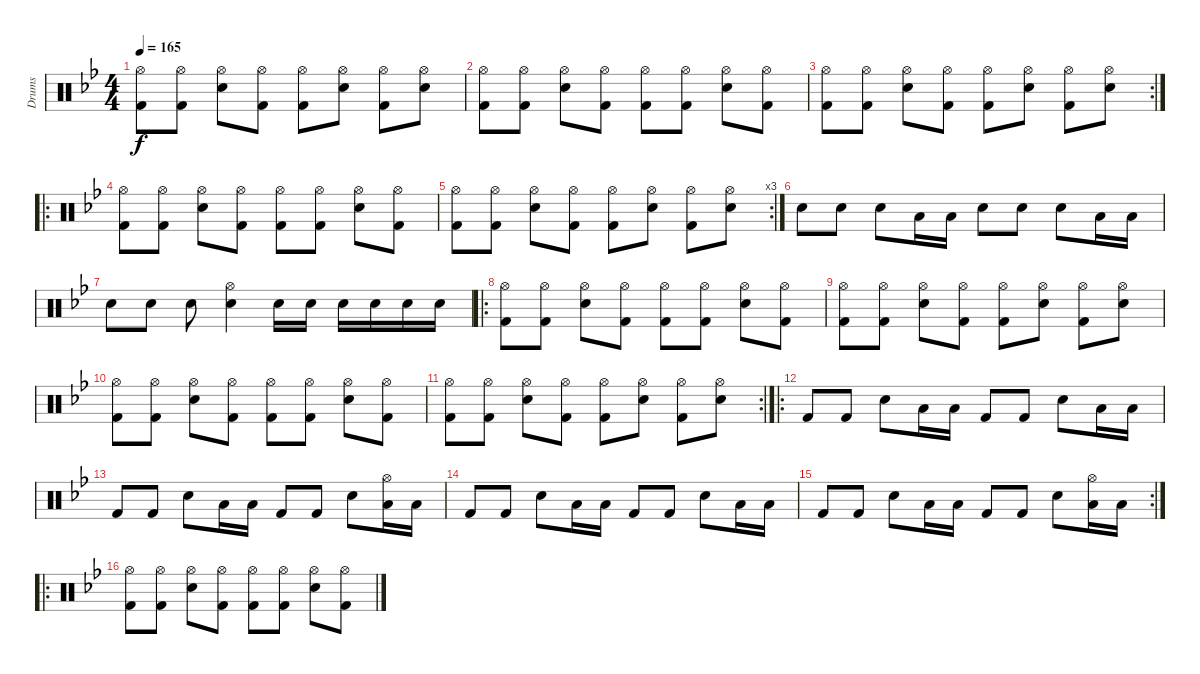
\track ("Drums" "Drums") {instrument percussion}
\staff {score}
\articulation defaults
\ts (4 4)
\tempo 165
\clef neutral
\ks bb
("Kick (hit) 2" "Hi-Hat (open)").8{dy f} ("Kick (hit) 2" "Hi-Hat (open)").8 ("Electric Snare (hit)" "Hi-Hat (open)").8 ("Kick (hit) 2" "Hi-Hat (open)").8 ("Kick (hit) 2" "Hi-Hat (open)").8 ("Electric Snare (hit)" "Hi-Hat (open)").8 ("Kick (hit) 2" "Hi-Hat (open)").8 ("Electric Snare (hit)" "Hi-Hat (open)").8 |
("Kick (hit) 2" "Hi-Hat (open)").8 ("Kick (hit) 2" "Hi-Hat (open)").8 ("Electric Snare (hit)" "Hi-Hat (open)").8 ("Kick (hit) 2" "Hi-Hat (open)").8 ("Kick (hit) 2" "Hi-Hat (open)").8 ("Kick (hit) 2" "Hi-Hat (open)").8 ("Electric Snare (hit)" "Hi-Hat (open)").8 ("Kick (hit) 2" "Hi-Hat (open)").8 |
\rc 2
("Kick (hit) 2" "Hi-Hat (open)").8 ("Kick (hit) 2" "Hi-Hat (open)").8 ("Electric Snare (hit)" "Hi-Hat (open)").8 ("Kick (hit) 2" "Hi-Hat (open)").8 ("Kick (hit) 2" "Hi-Hat (open)").8 ("Electric Snare (hit)" "Hi-Hat (open)").8 ("Kick (hit) 2" "Hi-Hat (open)").8 ("Electric Snare (hit)" "Hi-Hat (open)").8 |
\ro
("Kick (hit) 2" "Hi-Hat (open)").8 ("Kick (hit) 2" "Hi-Hat (open)").8 ("Electric Snare (hit)" "Hi-Hat (open)").8 ("Kick (hit) 2" "Hi-Hat (open)").8 ("Kick (hit) 2" "Hi-Hat (open)").8 ("Kick (hit) 2" "Hi-Hat (open)").8 ("Electric Snare (hit)" "Hi-Hat (open)").8 ("Kick (hit) 2" "Hi-Hat (open)").8 |
\rc 3
("Kick (hit) 2" "Hi-Hat (open)").8 ("Kick (hit) 2" "Hi-Hat (open)").8 ("Electric Snare (hit)" "Hi-Hat (open)").8 ("Kick (hit) 2" "Hi-Hat (open)").8 ("Kick (hit) 2" "Hi-Hat (open)").8 ("Electric Snare (hit)" "Hi-Hat (open)").8 ("Kick (hit) 2" "Hi-Hat (open)").8 ("Electric Snare (hit)" "Hi-Hat (open)").8 |
"Electric Snare (hit)".8 "Electric Snare (hit)".8 "Electric Snare (hit)".8 "Low Floor Tom (hit)".16 "Low Floor Tom (hit)".16 "Electric Snare (hit)".8 "Electric Snare (hit)".8 "Electric Snare (hit)".8 "Low Floor Tom (hit)".16 "Low Floor Tom (hit)".16 |
"Electric Snare (hit)".8 "Electric Snare (hit)".8 "Electric Snare (hit)".8 ("Electric Snare (hit)" "Hi-Hat (open)").4 "Electric Snare (hit)".16 "Electric Snare (hit)".16 "Electric Snare (hit)".16 "Electric Snare (hit)".16 "Electric Snare (hit)".16 "Electric Snare (hit)".16 |
\ro
("Kick (hit) 2" "Hi-Hat (open)").8 ("Kick (hit) 2" "Hi-Hat (open)").8 ("Electric Snare (hit)" "Hi-Hat (open)").8 ("Kick (hit) 2" "Hi-Hat (open)").8 ("Kick (hit) 2" "Hi-Hat (open)").8 ("Kick (hit) 2" "Hi-Hat (open)").8 ("Electric Snare (hit)" "Hi-Hat (open)").8 ("Kick (hit) 2" "Hi-Hat (open)").8 |
("Kick (hit) 2" "Hi-Hat (open)").8 ("Kick (hit) 2" "Hi-Hat (open)").8 ("Electric Snare (hit)" "Hi-Hat (open)").8 ("Kick (hit) 2" "Hi-Hat (open)").8 ("Kick (hit) 2" "Hi-Hat (open)").8 ("Electric Snare (hit)" "Hi-Hat (open)").8 ("Kick (hit) 2" "Hi-Hat (open)").8 ("Electric Snare (hit)" "Hi-Hat (open)").8 |
("Kick (hit) 2" "Hi-Hat (open)").8 ("Kick (hit) 2" "Hi-Hat (open)").8 ("Electric Snare (hit)" "Hi-Hat (open)").8 ("Kick (hit) 2" "Hi-Hat (open)").8 ("Kick (hit) 2" "Hi-Hat (open)").8 ("Kick (hit) 2" "Hi-Hat (open)").8 ("Electric Snare (hit)" "Hi-Hat (open)").8 ("Kick (hit) 2" "Hi-Hat (open)").8 |
\rc 2
("Kick (hit) 2" "Hi-Hat (open)").8 ("Kick (hit) 2" "Hi-Hat (open)").8 ("Electric Snare (hit)" "Hi-Hat (open)").8 ("Kick (hit) 2" "Hi-Hat (open)").8 ("Kick (hit) 2" "Hi-Hat (open)").8 ("Electric Snare (hit)" "Hi-Hat (open)").8 ("Kick (hit) 2" "Hi-Hat (open)").8 ("Electric Snare (hit)" "Hi-Hat (open)").8 |
\ro "Kick (hit) 2".8 "Kick (hit) 2".8 "Electric Snare (hit)".8 "Low Floor Tom (hit)".16 "Low Floor Tom (hit)".16 "Kick (hit) 2".8 "Kick (hit) 2".8 "Electric Snare (hit)".8 "Low Floor Tom (hit)".16 "Low Floor Tom (hit)".16
|
"Kick (hit) 2".8 "Kick (hit) 2".8 "Electric Snare (hit)".8 "Low Floor Tom (hit)".16 "Low Floor Tom (hit)".16 "Kick (hit) 2".8 "Kick (hit) 2".8 "Electric Snare (hit)".8 ("Low Floor Tom (hit)" "Hi-Hat (open)").16 "Low Floor Tom (hit)".16 |
"Kick (hit) 2".8 "Kick (hit) 2".8 "Electric Snare (hit)".8 "Low Floor Tom (hit)".16 "Low Floor Tom (hit)".16 "Kick (hit) 2".8 "Kick (hit) 2".8 "Electric Snare (hit)".8 "Low Floor Tom (hit)".16 "Low Floor Tom (hit)".16 |
\rc 2 "Kick (hit) 2".8 "Kick (hit) 2".8 "Electric Snare (hit)".8 "Low Floor Tom (hit)".16 "Low Floor Tom (hit)".16 "Kick (hit) 2".8 "Kick (hit) 2".8 "Electric Snare (hit)".8
("Low Floor Tom (hit)" "Hi-Hat (open)").16 "Low Floor Tom (hit)".16 |
\ro
("Kick (hit) 2" "Hi-Hat (open)").8 ("Kick (hit) 2" "Hi-Hat (open)").8 ("Electric Snare (hit)" "Hi-Hat (open)").8 ("Kick (hit) 2" "Hi-Hat (open)").8 ("Kick (hit) 2" "Hi-Hat (open)").8 ("Kick (hit) 2" "Hi-Hat (open)").8 ("Electric Snare (hit)" "Hi-Hat (open)").8 ("Kick (hit) 2" "Hi-Hat (open)").8
